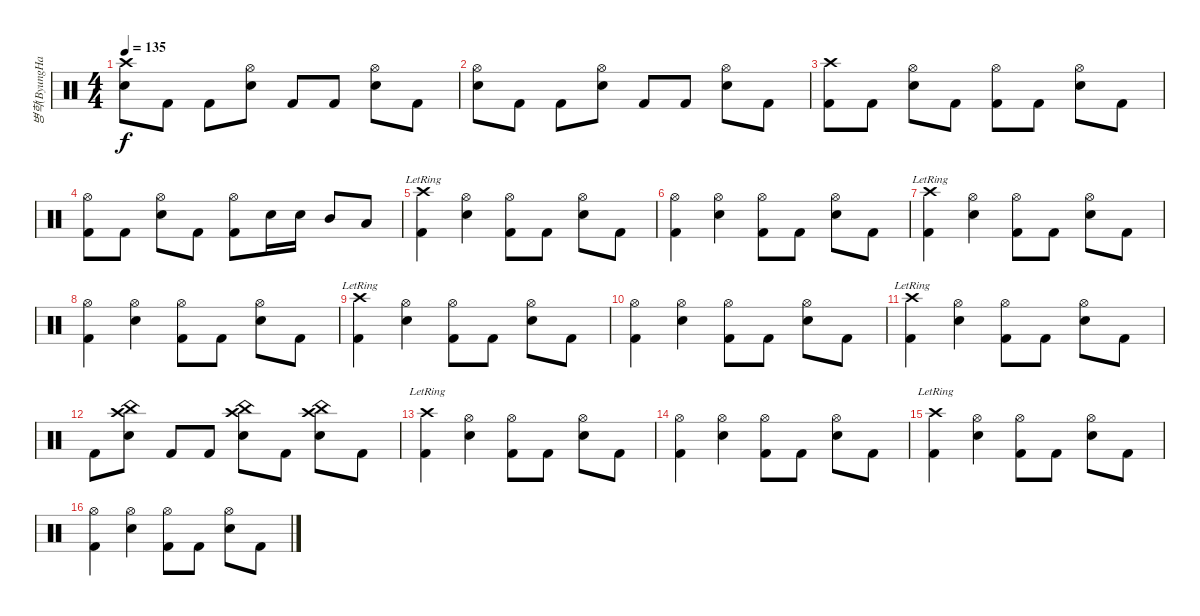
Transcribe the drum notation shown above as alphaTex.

\track ("병학(ByungHak)" "병학(ByungHa") {instrument percussion}
\staff {score}
\articulation defaults
\ts (4 4)
\tempo 135
\clef neutral
\ks c
("Crash high (hit)" "Snare (hit) 2").8{dy f} "Kick (hit) 2".8 "Kick (hit) 2".8 ("Hi-Hat (open)" "Snare (hit) 2").8 "Kick (hit) 2".8 "Kick (hit) 2".8 ("Hi-Hat (open)" "Snare (hit) 2").8 "Kick (hit) 2".8 |
("Hi-Hat (open)" "Snare (hit) 2").8 "Kick (hit) 2".8 "Kick (hit) 2".8 ("Hi-Hat (open)" "Snare (hit) 2").8 "Kick (hit) 2".8 "Kick (hit) 2".8 ("Hi-Hat (open)" "Snare (hit) 2").8 "Kick (hit) 2".8 |
("Crash high (hit)" "Kick (hit) 2").8 "Kick (hit) 2".8 ("Hi-Hat (open)" "Snare (hit) 2").8 "Kick (hit) 2".8 ("Hi-Hat (open)" "Kick (hit) 2").8 "Kick (hit) 2".8 ("Hi-Hat (open)" "Snare (hit) 2").8 "Kick (hit) 2".8 |
("Hi-Hat (open)" "Kick (hit) 2").8 "Kick (hit) 2".8 ("Hi-Hat (open)" "Snare (hit) 2").8 "Kick (hit) 2".8 ("Hi-Hat (open)" "Kick (hit) 2").8 "Electric Snare (hit)".16 "Electric Snare (hit)".16 "Mid Tom (hit)".8 "Low Tom (hit)".8 |
("Crash high (hit)"{lr} "Kick (hit) 2").4 ("Hi-Hat (open)" "Snare (hit) 2").4 ("Hi-Hat (open)" "Kick (hit) 2").8 "Kick (hit) 2".8 ("Hi-Hat (open)" "Snare (hit) 2").8 "Kick (hit) 2".8 |
("Hi-Hat (open)" "Kick (hit) 2").4 ("Hi-Hat (open)" "Snare (hit) 2").4 ("Hi-Hat (open)" "Kick (hit) 2").8 "Kick (hit) 2".8 ("Hi-Hat (open)" "Snare (hit) 2").8 "Kick (hit) 2".8 |
("Crash high (hit)"{lr} "Kick (hit) 2").4 ("Hi-Hat (open)" "Snare (hit) 2").4 ("Hi-Hat (open)" "Kick (hit) 2").8 "Kick (hit) 2".8 ("Hi-Hat (open)" "Snare (hit) 2").8 "Kick (hit) 2".8 |
("Hi-Hat (open)" "Kick (hit) 2").4 ("Hi-Hat (open)" "Snare (hit) 2").4 ("Hi-Hat (open)" "Kick (hit) 2").8 "Kick (hit) 2".8 ("Hi-Hat (open)" "Snare (hit) 2").8 "Kick (hit) 2".8 |
("Crash high (hit)"{lr} "Kick (hit) 2").4 ("Hi-Hat (open)" "Snare (hit) 2").4 ("Hi-Hat (open)" "Kick (hit) 2").8 "Kick (hit) 2".8 ("Hi-Hat (open)" "Snare (hit) 2").8 "Kick (hit) 2".8 |
("Hi-Hat (open)" "Kick (hit) 2").4 ("Hi-Hat (open)" "Snare (hit) 2").4 ("Hi-Hat (open)" "Kick (hit) 2").8 "Kick (hit) 2".8 ("Hi-Hat (open)" "Snare (hit) 2").8 "Kick (hit) 2".8 |
("Crash high (hit)"{lr} "Kick (hit) 2").4 ("Hi-Hat (open)" "Snare (hit) 2").4 ("Hi-Hat (open)" "Kick (hit) 2").8 "Kick (hit) 2".8 ("Hi-Hat (open)" "Snare (hit) 2").8 "Kick (hit) 2".8 |
"Kick (hit) 2".8 ("Crash high (hit)" "China (hit)" "Snare (hit) 2").8 "Kick (hit) 2".8 "Kick (hit) 2".8 ("Crash high (hit)" "China (hit)" "Snare (hit) 2").8 "Kick (hit) 2".8 ("Crash high (hit)" "China (hit)" "Snare (hit) 2").8 "Kick (hit) 2".8 |
("Crash high (hit)"{lr} "Kick (hit) 2").4 ("Hi-Hat (open)" "Snare (hit) 2").4 ("Hi-Hat (open)" "Kick (hit) 2").8 "Kick (hit) 2".8 ("Hi-Hat (open)" "Snare (hit) 2").8 "Kick (hit) 2".8 |
("Hi-Hat (open)" "Kick (hit) 2").4 ("Hi-Hat (open)" "Snare (hit) 2").4 ("Hi-Hat (open)" "Kick (hit) 2").8 "Kick (hit) 2".8 ("Hi-Hat (open)" "Snare (hit) 2").8 "Kick (hit) 2".8 |
("Crash high (hit)"{lr} "Kick (hit) 2").4 ("Hi-Hat (open)" "Snare (hit) 2").4 ("Hi-Hat (open)" "Kick (hit) 2").8 "Kick (hit) 2".8 ("Hi-Hat (open)" "Snare (hit) 2").8 "Kick (hit) 2".8 |
("Hi-Hat (open)" "Kick (hit) 2").4 ("Hi-Hat (open)" "Snare (hit) 2").4 ("Hi-Hat (open)" "Kick (hit) 2").8 "Kick (hit) 2".8 ("Hi-Hat (open)" "Snare (hit) 2").8 "Kick (hit) 2".8
